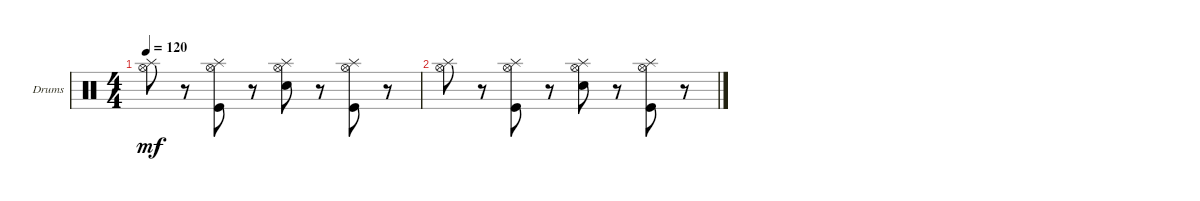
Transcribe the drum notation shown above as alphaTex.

\defaultSystemsLayout 4
\bracketExtendMode groupsimilarinstruments
\firstSystemTrackNameOrientation horizontal
\otherSystemsTrackNameOrientation horizontal
\track ("Drumkit" "Drums") {instrument percussion}
\staff {score}
\articulation defaults
\ts (4 4)
\tempo 120
\clef neutral
\ks c
("Splash (hit)" "Hi-Hat (open)").8{dy mf} r.8 ("Splash (hit)" "Hi-Hat (open)" "Kick (hit)").8 r.8 ("Snare (hit) 2" "Splash (hit)" "Hi-Hat (open)").8 r.8 ("Splash (hit)" "Hi-Hat (open)" "Kick (hit)").8 r.8 |
("Splash (hit)" "Hi-Hat (open)").8 r.8 ("Splash (hit)" "Hi-Hat (open)" "Kick (hit)").8 r.8 ("Snare (hit) 2" "Splash (hit)" "Hi-Hat (open)").8 r.8 ("Splash (hit)" "Hi-Hat (open)" "Kick (hit)").8 r.8
